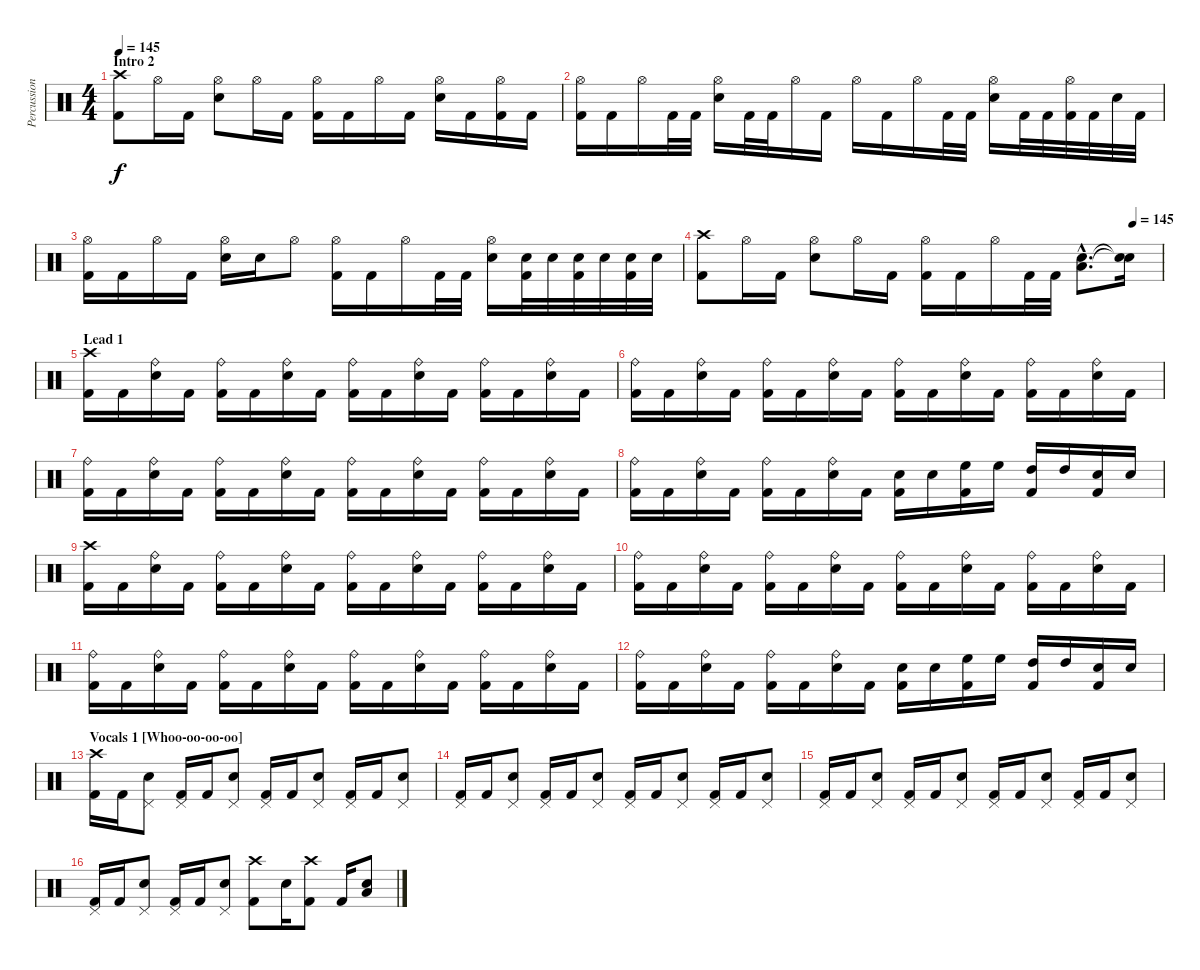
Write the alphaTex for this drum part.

\track ("Percussion" "Percussion") {instrument percussion}
\staff {score}
\articulation defaults
\ts (4 4)
\section ("" "Intro 2")
\tempo 145
\clef neutral
\ks c
("Kick (hit) 2" "Crash high (hit)").8{dy f} "Hi-Hat (open)".16 "Kick (hit) 2".16 ("Electric Snare (hit)" "Hi-Hat (open)").8 "Hi-Hat (open)".16 "Kick (hit) 2".16 ("Kick (hit) 2" "Hi-Hat (open)").16 "Kick (hit) 2".16 "Hi-Hat (open)".16 "Kick (hit) 2".16 ("Electric Snare (hit)" "Hi-Hat (open)").16 "Kick (hit) 2".16 ("Kick (hit) 2" "Hi-Hat (open)").16 "Kick (hit) 2".16 |
("Kick (hit) 2" "Hi-Hat (open)").16 "Kick (hit) 2".16 "Hi-Hat (open)".16 "Kick (hit) 2".32 "Kick (hit) 2".32 ("Electric Snare (hit)" "Hi-Hat (open)").16 "Kick (hit) 2".32 "Kick (hit) 2".32 "Hi-Hat (open)".16 "Kick (hit) 2".16 "Hi-Hat (open)".16 "Kick (hit) 2".16 "Hi-Hat (open)".16 "Kick (hit) 2".32 "Kick (hit) 2".32 ("Electric Snare (hit)" "Hi-Hat (open)").16 "Kick (hit) 2".32 "Kick (hit) 2".32 ("Kick (hit) 2" "Hi-Hat (open)").32 "Kick (hit) 2".32 "Electric Snare (hit)".32 "Kick (hit) 2".32 |
("Kick (hit) 2" "Hi-Hat (open)").16 "Kick (hit) 2".16 "Hi-Hat (open)".16 "Kick (hit) 2".16 ("Electric Snare (hit)" "Hi-Hat (open)").16 "Electric Snare (hit)".16 "Hi-Hat (open)".8 ("Kick (hit) 2" "Hi-Hat (open)").16 "Kick (hit) 2".16 "Hi-Hat (open)".16 "Kick (hit) 2".32 "Kick (hit) 2".32 ("Electric Snare (hit)" "Hi-Hat (open)").16 ("Electric Snare (hit)" "Kick (hit) 2").32 "Electric Snare (hit)".32 ("Electric Snare (hit)" "Kick (hit) 2").32 "Electric Snare (hit)".32 ("Electric Snare (hit)" "Kick (hit) 2").32 "Electric Snare (hit)".32 |
\tempo (145 0.9375)
("Kick (hit) 2" "Crash high (hit)").8 "Hi-Hat (open)".16 "Kick (hit) 2".16 ("Electric Snare (hit)" "Hi-Hat (open)").8 "Hi-Hat (open)".16 "Kick (hit) 2".16 ("Kick (hit) 2" "Hi-Hat (open)").16 "Kick (hit) 2".16 "Hi-Hat (open)".16 "Kick (hit) 2".32 "Kick (hit) 2".32 ("Electric Snare (hit)"{hac} "Low Tom (hit)"{hac}).8{d} ("Snare (hit)"{t} "Snare (hit)"{t}).16 |
\section ("" "Lead 1")
("Kick (hit) 2" "Crash high (hit)").16 "Kick (hit) 2".16 ("Electric Snare (hit)" "Ride (bell)").16 "Kick (hit) 2".16 ("Kick (hit) 2" "Ride (bell)").16 "Kick (hit) 2".16 ("Electric Snare (hit)" "Ride (bell)").16 "Kick (hit) 2".16 ("Kick (hit) 2" "Ride (bell)").16 "Kick (hit) 2".16 ("Electric Snare (hit)" "Ride (bell)").16 "Kick (hit) 2".16 ("Kick (hit) 2" "Ride (bell)").16 "Kick (hit) 2".16 ("Electric Snare (hit)" "Ride (bell)").16 "Kick (hit) 2".16 |
("Kick (hit) 2" "Ride (bell)").16 "Kick (hit) 2".16 ("Electric Snare (hit)" "Ride (bell)").16 "Kick (hit) 2".16 ("Kick (hit) 2" "Ride (bell)").16 "Kick (hit) 2".16 ("Electric Snare (hit)" "Ride (bell)").16 "Kick (hit) 2".16 ("Kick (hit) 2" "Ride (bell)").16 "Kick (hit) 2".16 ("Electric Snare (hit)" "Ride (bell)").16 "Kick (hit) 2".16 ("Kick (hit) 2" "Ride (bell)").16 "Kick (hit) 2".16 ("Electric Snare (hit)" "Ride (bell)").16 "Kick (hit) 2".16 |
("Kick (hit) 2" "Ride (bell)").16 "Kick (hit) 2".16 ("Electric Snare (hit)" "Ride (bell)").16 "Kick (hit) 2".16 ("Kick (hit) 2" "Ride (bell)").16 "Kick (hit) 2".16 ("Electric Snare (hit)" "Ride (bell)").16 "Kick (hit) 2".16 ("Kick (hit) 2" "Ride (bell)").16 "Kick (hit) 2".16 ("Electric Snare (hit)" "Ride (bell)").16 "Kick (hit) 2".16 ("Kick (hit) 2" "Ride (bell)").16 "Kick (hit) 2".16 ("Electric Snare (hit)" "Ride (bell)").16 "Kick (hit) 2".16 |
("Kick (hit) 2" "Ride (bell)").16 "Kick (hit) 2".16 ("Electric Snare (hit)" "Ride (bell)").16 "Kick (hit) 2".16 ("Kick (hit) 2" "Ride (bell)").16 "Kick (hit) 2".16 ("Electric Snare (hit)" "Ride (bell)").16 "Kick (hit) 2".16 ("Electric Snare (hit)" "Kick (hit) 2").16 "Electric Snare (hit)".16 ("High Floor Tom (hit)" "Kick (hit) 2").16 "High Floor Tom (hit)".16 ("High Tom (hit)" "Kick (hit) 2").16 "High Tom (hit)".16 ("Electric Snare (hit)" "Kick (hit) 2").16 "Electric Snare (hit)".16 |
("Kick (hit) 2" "Crash high (hit)").16 "Kick (hit) 2".16 ("Electric Snare (hit)" "Ride (bell)").16 "Kick (hit) 2".16 ("Kick (hit) 2" "Ride (bell)").16 "Kick (hit) 2".16 ("Electric Snare (hit)" "Ride (bell)").16 "Kick (hit) 2".16 ("Kick (hit) 2" "Ride (bell)").16 "Kick (hit) 2".16 ("Electric Snare (hit)" "Ride (bell)").16 "Kick (hit) 2".16 ("Kick (hit) 2" "Ride (bell)").16 "Kick (hit) 2".16 ("Electric Snare (hit)" "Ride (bell)").16 "Kick (hit) 2".16 |
("Kick (hit) 2" "Ride (bell)").16 "Kick (hit) 2".16 ("Electric Snare (hit)" "Ride (bell)").16 "Kick (hit) 2".16 ("Kick (hit) 2" "Ride (bell)").16 "Kick (hit) 2".16 ("Electric Snare (hit)" "Ride (bell)").16 "Kick (hit) 2".16 ("Kick (hit) 2" "Ride (bell)").16 "Kick (hit) 2".16 ("Electric Snare (hit)" "Ride (bell)").16 "Kick (hit) 2".16 ("Kick (hit) 2" "Ride (bell)").16 "Kick (hit) 2".16 ("Electric Snare (hit)" "Ride (bell)").16 "Kick (hit) 2".16 |
("Kick (hit) 2" "Ride (bell)").16 "Kick (hit) 2".16 ("Electric Snare (hit)" "Ride (bell)").16 "Kick (hit) 2".16 ("Kick (hit) 2" "Ride (bell)").16 "Kick (hit) 2".16 ("Electric Snare (hit)" "Ride (bell)").16 "Kick (hit) 2".16 ("Kick (hit) 2" "Ride (bell)").16 "Kick (hit) 2".16 ("Electric Snare (hit)" "Ride (bell)").16 "Kick (hit) 2".16 ("Kick (hit) 2" "Ride (bell)").16 "Kick (hit) 2".16 ("Electric Snare (hit)" "Ride (bell)").16 "Kick (hit) 2".16 |
("Kick (hit) 2" "Ride (bell)").16 "Kick (hit) 2".16 ("Electric Snare (hit)" "Ride (bell)").16 "Kick (hit) 2".16 ("Kick (hit) 2" "Ride (bell)").16 "Kick (hit) 2".16 ("Electric Snare (hit)" "Ride (bell)").16 "Kick (hit) 2".16 ("Electric Snare (hit)" "Kick (hit) 2").16 "Electric Snare (hit)".16 ("High Floor Tom (hit)" "Kick (hit) 2").16 "High Floor Tom (hit)".16 ("High Tom (hit)" "Kick (hit) 2").16 "High Tom (hit)".16 ("Electric Snare (hit)" "Kick (hit) 2").16 "Electric Snare (hit)".16 |
\section ("" "Vocals 1 [Whoo-oo-oo-oo]")
("Kick (hit) 2" "Crash high (hit)").16 "Kick (hit) 2".16 ("Electric Snare (hit)" "Pedal Hi-Hat (hit)").8 ("Kick (hit) 2" "Pedal Hi-Hat (hit)").16 "Kick (hit) 2".16 ("Electric Snare (hit)" "Pedal Hi-Hat (hit)").8 ("Kick (hit) 2" "Pedal Hi-Hat (hit)").16 "Kick (hit) 2".16 ("Electric Snare (hit)" "Pedal Hi-Hat (hit)").8 ("Kick (hit) 2" "Pedal Hi-Hat (hit)").16 "Kick (hit) 2".16 ("Electric Snare (hit)" "Pedal Hi-Hat (hit)").8 |
("Kick (hit) 2" "Pedal Hi-Hat (hit)").16 "Kick (hit) 2".16 ("Electric Snare (hit)" "Pedal Hi-Hat (hit)").8 ("Kick (hit) 2" "Pedal Hi-Hat (hit)").16 "Kick (hit) 2".16 ("Electric Snare (hit)" "Pedal Hi-Hat (hit)").8 ("Kick (hit) 2" "Pedal Hi-Hat (hit)").16 "Kick (hit) 2".16 ("Electric Snare (hit)" "Pedal Hi-Hat (hit)").8 ("Kick (hit) 2" "Pedal Hi-Hat (hit)").16 "Kick (hit) 2".16 ("Electric Snare (hit)" "Pedal Hi-Hat (hit)").8 |
("Kick (hit) 2" "Pedal Hi-Hat (hit)").16 "Kick (hit) 2".16 ("Electric Snare (hit)" "Pedal Hi-Hat (hit)").8 ("Kick (hit) 2" "Pedal Hi-Hat (hit)").16 "Kick (hit) 2".16 ("Electric Snare (hit)" "Pedal Hi-Hat (hit)").8 ("Kick (hit) 2" "Pedal Hi-Hat (hit)").16 "Kick (hit) 2".16 ("Electric Snare (hit)" "Pedal Hi-Hat (hit)").8 ("Kick (hit) 2" "Pedal Hi-Hat (hit)").16 "Kick (hit) 2".16 ("Electric Snare (hit)" "Pedal Hi-Hat (hit)").8 |
("Kick (hit) 2" "Pedal Hi-Hat (hit)").16 "Kick (hit) 2".16 ("Electric Snare (hit)" "Pedal Hi-Hat (hit)").8 ("Kick (hit) 2" "Pedal Hi-Hat (hit)").16 "Kick (hit) 2".16 ("Electric Snare (hit)" "Pedal Hi-Hat (hit)").8 ("Kick (hit) 2" "Crash high (hit)").8 "Electric Snare (hit)".16 ("Kick (hit) 2" "Crash high (hit)").8 "Kick (hit) 2".16 ("Electric Snare (hit)" "Low Tom (hit)").8
